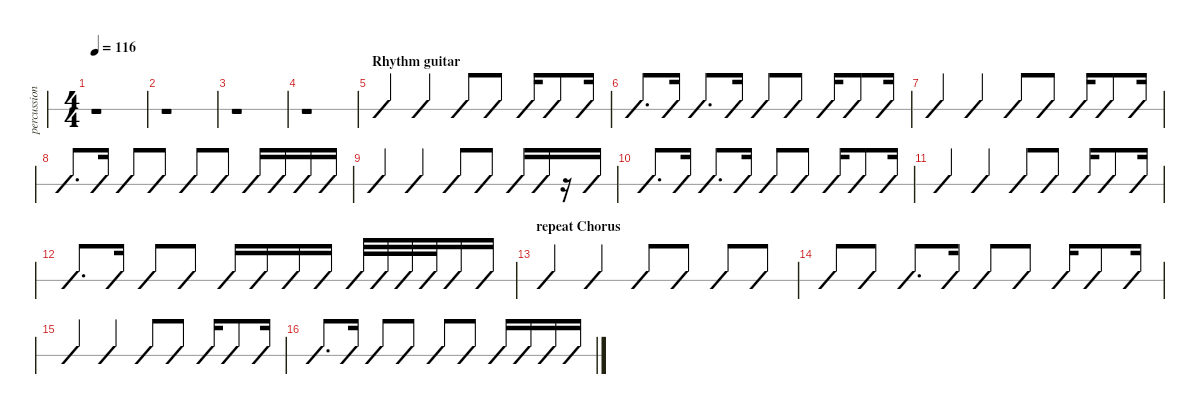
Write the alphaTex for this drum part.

\defaultSystemsLayout 4
\hideDynamics
\bracketExtendMode nobrackets
\track ("Drums" "percussion") {instrument percussion}
\staff {slash}
\articulation defaults
\voice
\ts (4 4)
\tempo 116
\clef neutral
\ks c
r.1{dy f} |
r.1 |
r.1 |
r.1 |
\section ("" "Rhythm guitar")
("Crash medium (hit)" "Kick (hit) 2" "Crash high (hit)").4 ("Crash medium (hit)" "Snare (hit) 2").4 "Crash medium (hit)".8 "Kick (hit) 2".8 ("Crash medium (hit)" "Snare (hit) 2").16 "Kick (hit) 2".8 "Kick (hit) 2".16 |
("Crash medium (hit)" "Kick (hit) 2").8{d} "Kick (hit) 2".16 ("Crash medium (hit)" "Snare (hit) 2").8{d} "Snare (hit) 2".16 "Crash medium (hit)".8 "Kick (hit) 2".8 ("Crash medium (hit)" "Snare (hit) 2").16 "Kick (hit) 2".8 "Kick (hit) 2".16 |
("Crash medium (hit)" "Kick (hit) 2" "Crash high (hit)").4 ("Crash medium (hit)" "Snare (hit) 2").4 "Crash medium (hit)".8 "Kick (hit) 2".8 ("Crash medium (hit)" "Snare (hit) 2").16 "Kick (hit) 2".8 "Kick (hit) 2".16 |
("Crash medium (hit)" "Kick (hit) 2").8{d} "Kick (hit) 2".16 ("Crash medium (hit)" "Snare (hit) 2").8 ("Crash high (hit)" "Kick (hit) 2").8 "Crash medium (hit)".8 "Kick (hit) 2".8 ("Crash medium (hit)" "Snare (hit) 2").16 "Kick (hit) 2".16 "Snare (hit) 2".16 "Snare (hit) 2".16 |
("Crash medium (hit)" "Kick (hit) 2").4 ("Crash medium (hit)" "Snare (hit) 2").4 "Crash medium (hit)".8 "Kick (hit) 2".8 ("Crash medium (hit)" "Snare (hit) 2").16 "Kick (hit) 2".16 r.16 "Kick (hit) 2".16 |
("Crash medium (hit)" "Kick (hit) 2").8{d} "Kick (hit) 2".16 ("Crash medium (hit)" "Snare (hit) 2").8{d} "Snare (hit) 2".16 "Crash medium (hit)".8 "Kick (hit) 2".8 ("Crash medium (hit)" "Snare (hit) 2").16 "Kick (hit) 2".8 "Kick (hit) 2".16 |
("Crash medium (hit)" "Kick (hit) 2").4 ("Crash medium (hit)" "Snare (hit) 2").4 "Crash medium (hit)".8 "Kick (hit) 2".8 ("Crash medium (hit)" "Snare (hit) 2").16 "Kick (hit) 2".8 "Kick (hit) 2".16 |
("Crash medium (hit)" "Kick (hit) 2").8{d} "Kick (hit) 2".16 ("Crash medium (hit)" "Snare (hit) 2").8 ("Crash high (hit)" "Kick (hit) 2").8 "Snare (hit) 2".16 "Snare (hit) 2".16 "Snare (hit) 2".16 "Snare (hit) 2".16 "Snare (hit) 2"{g}.32{dy mf} "Snare (hit) 2"{g}.32 "Snare (hit) 2"{g}.32 "Snare (hit) 2"{g}.32 "Snare (hit) 2".16{dy f} "Snare (hit) 2".16 |
\section ("" "repeat Chorus")
("Crash high (hit)" "Kick (hit) 2").4 ("Crash high (hit)" "Snare (hit) 2").4 ("Crash high (hit)" "Kick (hit) 2").8 "Kick (hit) 2".8 ("Crash high (hit)" "Snare (hit) 2").8 "Kick (hit) 2".8 |
"Crash high (hit)".8 "Kick (hit) 2".8 ("Crash high (hit)" "Snare (hit) 2").8{d} "Snare (hit) 2".16 "Crash high (hit)".8 "Kick (hit) 2".8 ("Crash high (hit)" "Snare (hit) 2").16 "Kick (hit) 2".8 "Kick (hit) 2".16 |
("Crash high (hit)" "Kick (hit) 2").4 ("Crash high (hit)" "Snare (hit) 2").4 "Crash high (hit)".8 "Kick (hit) 2".8 ("Crash high (hit)" "Snare (hit) 2").16 "Kick (hit) 2".8 "Kick (hit) 2".16 |
("Crash high (hit)" "Kick (hit) 2").8{d} "Kick (hit) 2".16 ("Crash high (hit)" "Snare (hit) 2").8 ("Crash medium (hit)" "Kick (hit) 2").8 "Crash high (hit)".8 "Kick (hit) 2".8 ("Crash high (hit)" "Snare (hit) 2").16 "Kick (hit) 2".16 "Snare (hit) 2".16 "Snare (hit) 2".16
\voice
\clef neutral
\ottava regular
\simile none
\ks c
r.4{dy mf} r.4 r.4 r.4 |
r.4 r.4 r.4 r.4 |
r.4 r.4 r.4 r.4 |
r.4 r.4 r.4 r.4 |
r.4 r.4 r.4 r.4 |
r.4 r.4 r.4 r.4 |
r.4 r.4 r.4 r.4 |
r.4 r.4 r.4 r.4 |
r.4 r.4 r.4 r.4 |
r.4 r.4 r.4 r.4 |
r.4 r.4 r.4 r.4 |
r.4 r.4 r.4 r.4 |
r.4 r.4 r.4 r.4 |
r.4 r.4 r.4 r.4 |
r.4 r.4 r.4 r.4 |
r.4 r.4 r.4 r.4
